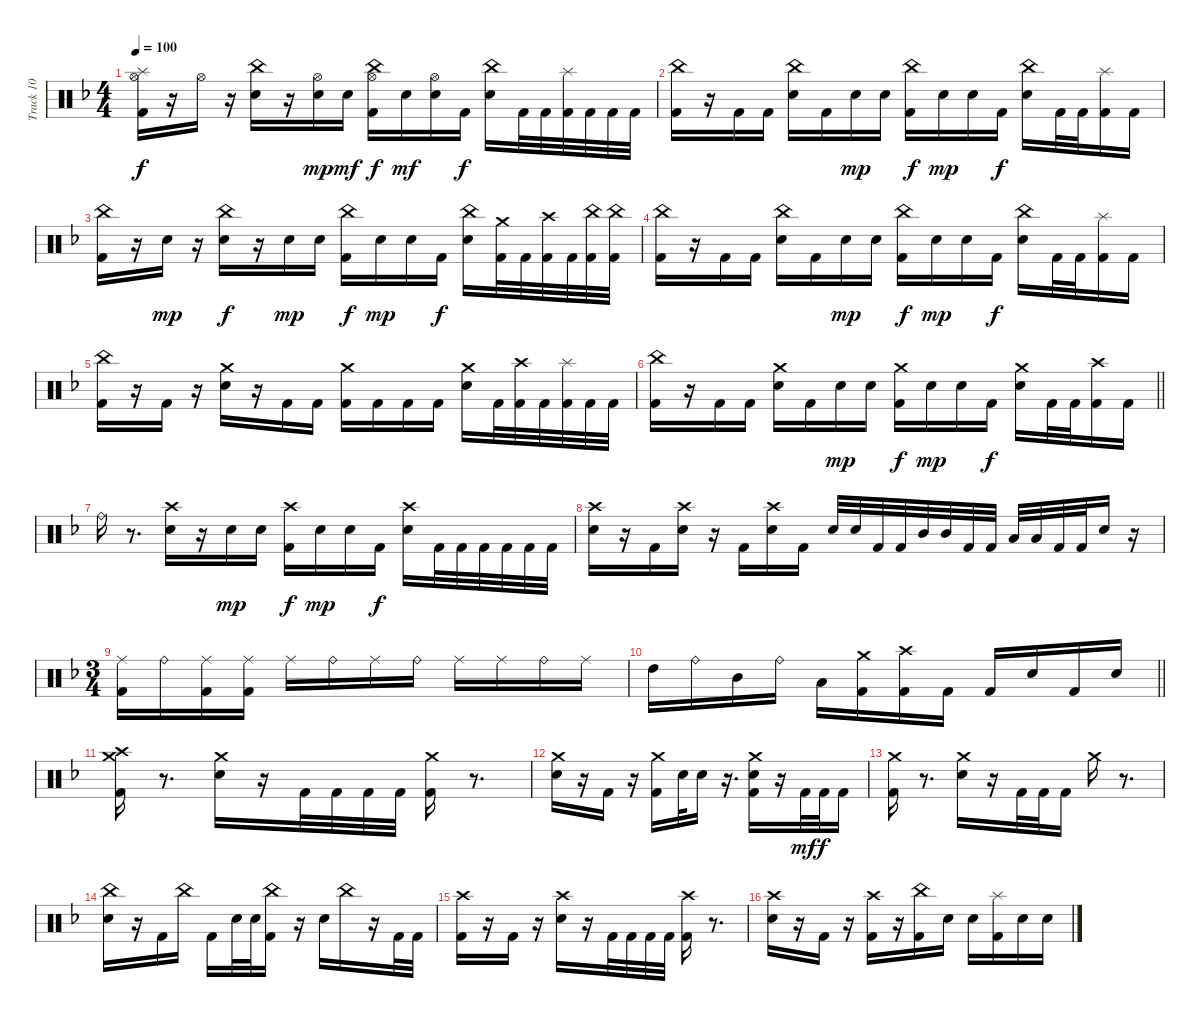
\track ("Track 10" "Track 10") {instrument percussion}
\staff {score}
\articulation defaults
\ts (4 4)
\tempo 100
\clef neutral
\ks f
("Kick (hit) 2" "Hi-Hat (open)" "Splash (hit)").16{dy f} r.16 "Hi-Hat (open)".16 r.16 ("Snare (hit) 2" "China (hit)").16 r.16 ("Snare (hit) 2" "Hi-Hat (open)").16{dy mp} "Snare (hit) 2".16{dy mf} ("Kick (hit) 2" "Hi-Hat (open)" "China (hit)").16{dy f} "Snare (hit) 2".16{dy mf} ("Snare (hit) 2" "Hi-Hat (open)").16 "Kick (hit) 2".16{dy f} ("Snare (hit) 2" "China (hit)").16 "Kick (hit) 2".32 "Kick (hit) 2".32 ("Kick (hit) 2" "Splash (hit)").32 "Kick (hit) 2".32 "Kick (hit) 2".32 "Kick (hit) 2".32 |
("Kick (hit) 2" "China (hit)").16 r.16 "Kick (hit) 2".16 "Kick (hit) 2".16 ("Snare (hit) 2" "China (hit)").16 "Kick (hit) 2".16 "Snare (hit) 2".16{dy mp} "Snare (hit) 2".16 ("Kick (hit) 2" "China (hit)").16{dy f} "Snare (hit) 2".16{dy mp} "Snare (hit) 2".16 "Kick (hit) 2".16{dy f} ("Snare (hit) 2" "China (hit)").16 "Kick (hit) 2".32 "Kick (hit) 2".32 ("Kick (hit) 2" "Splash (hit)").16 "Kick (hit) 2".16 |
("Kick (hit) 2" "China (hit)").16 r.16 "Snare (hit) 2".16{dy mp} r.16 ("Snare (hit) 2" "China (hit)").16{dy f} r.16 "Snare (hit) 2".16{dy mp} "Snare (hit) 2".16 ("Kick (hit) 2" "China (hit)").16{dy f} "Snare (hit) 2".16{dy mp} "Snare (hit) 2".16 "Kick (hit) 2".16{dy f} ("Snare (hit) 2" "China (hit)").16 ("Kick (hit) 2" "Crash medium (hit)").32 "Kick (hit) 2".32 ("Kick (hit) 2" "Crash high (hit)").32 "Kick (hit) 2".32 ("Kick (hit) 2" "China (hit)").32 ("Kick (hit) 2" "China (hit)").32 |
("Kick (hit) 2" "China (hit)").16 r.16 "Kick (hit) 2".16 "Kick (hit) 2".16 ("Snare (hit) 2" "China (hit)").16 "Kick (hit) 2".16 "Snare (hit) 2".16{dy mp} "Snare (hit) 2".16 ("Kick (hit) 2" "China (hit)").16{dy f} "Snare (hit) 2".16{dy mp} "Snare (hit) 2".16 "Kick (hit) 2".16{dy f} ("Snare (hit) 2" "China (hit)").16 "Kick (hit) 2".32 "Kick (hit) 2".32 ("Kick (hit) 2" "Splash (hit)").16 "Kick (hit) 2".16 |
("Kick (hit) 2" "China (hit)").16 r.16 "Kick (hit) 2".16 r.16 ("Snare (hit) 2" "Crash medium (hit)").16 r.16 "Kick (hit) 2".16 "Kick (hit) 2".16 ("Kick (hit) 2" "Crash medium (hit)").16 "Kick (hit) 2".16 "Kick (hit) 2".16 "Kick (hit) 2".16 ("Snare (hit) 2" "Crash medium (hit)").16 "Kick (hit) 2".32 ("Kick (hit) 2" "Crash high (hit)").32 "Kick (hit) 2".32 ("Kick (hit) 2" "Splash (hit)").32 "Kick (hit) 2".32 "Kick (hit) 2".32 |
\barLineRight lightlight
("Kick (hit) 2" "China (hit)").16 r.16 "Kick (hit) 2".16 "Kick (hit) 2".16 ("Snare (hit) 2" "Crash medium (hit)").16 "Kick (hit) 2".16 "Snare (hit) 2".16{dy mp} "Snare (hit) 2".16 ("Kick (hit) 2" "Crash medium (hit)").16{dy f} "Snare (hit) 2".16{dy mp} "Snare (hit) 2".16 "Kick (hit) 2".16{dy f} ("Snare (hit) 2" "Crash medium (hit)").16 "Kick (hit) 2".32 "Kick (hit) 2".32 ("Kick (hit) 2" "Crash high (hit)").16 "Kick (hit) 2".16 |
"Ride (bell)".16 r.8{d} ("Snare (hit) 2" "Crash high (hit)").16 r.16 "Snare (hit) 2".16{dy mp} "Snare (hit) 2".16 ("Kick (hit) 2" "Crash high (hit)").16{dy f} "Snare (hit) 2".16{dy mp} "Snare (hit) 2".16 "Kick (hit) 2".16{dy f} ("Snare (hit) 2" "Crash high (hit)").16 "Kick (hit) 2".32 "Kick (hit) 2".32 "Kick (hit) 2".32 "Kick (hit) 2".32 "Kick (hit) 2".32 "Kick (hit) 2".32 |
("Snare (hit) 2" "Crash high (hit)").16 r.16 "Kick (hit) 2".16 ("Snare (hit) 2" "Crash high (hit)").16 r.16 "Kick (hit) 2".16 ("Snare (hit) 2" "Crash high (hit)").16 "Kick (hit) 2".16 "Snare (hit) 2".32 "Snare (hit) 2".32 "Kick (hit) 2".32 "Kick (hit) 2".32 "Mid Tom (hit)".32 "Mid Tom (hit)".32 "Kick (hit) 2".32 "Kick (hit) 2".32 "Low Floor Tom (hit)".32 "Low Floor Tom (hit)".32 "Kick (hit) 2".32 "Kick (hit) 2".32 "Snare (hit) 2".16 r.16 |
\ts (3 4)
("Kick (hit) 2" "Ride (middle)").16 "Ride (bell)".16 ("Kick (hit) 2" "Ride (middle)").16 ("Kick (hit) 2" "Ride (middle)").16 "Ride (middle)".16 "Ride (bell)".16 "Ride (middle)".16 "Ride (bell)".16 "Ride (middle)".16 "Ride (middle)".16 "Ride (bell)".16 "Ride (middle)".16 |
\barLineRight lightlight "High Tom (hit)".16 "Ride (bell)".16 "Mid Tom (hit)".16 "Ride (bell)".16 "Low Floor Tom (hit)".16
("Kick (hit) 2" "Crash medium (hit)").16 ("Kick (hit) 2" "Crash high (hit)").16 "Kick (hit) 2".16 "Kick (hit) 2".16 "Snare (hit) 2".16 "Kick (hit) 2".16 "Snare (hit) 2".16 |
("Kick (hit) 2" "Crash high (hit)" "Crash medium (hit)").16 r.8{d} ("Snare (hit) 2" "Crash medium (hit)").16 r.16 "Kick (hit) 2".32 "Kick (hit) 2".32 "Kick (hit) 2".32 "Kick (hit) 2".32 ("Kick (hit) 2" "Crash medium (hit)").16 r.8{d} |
("Snare (hit) 2" "Crash medium (hit)").16 r.16 "Kick (hit) 2".16 r.16 ("Kick (hit) 2" "Crash medium (hit)").16 "Snare (hit) 2".32 "Snare (hit) 2".16 r.16{d} ("Kick (hit) 2" "Snare (hit) 2" "Crash medium (hit)").16 r.16 "Kick (hit) 2".32{dy mf} "Kick (hit) 2".32{dy f} "Kick (hit) 2".16 |
("Kick (hit) 2" "Crash medium (hit)").16 r.8{d} ("Snare (hit) 2" "Crash medium (hit)").16 r.16 "Kick (hit) 2".32 "Kick (hit) 2".32 "Kick (hit) 2".16 "Crash medium (hit)".16 r.8{d} |
("Snare (hit) 2" "China (hit)").16 r.16 "Kick (hit) 2".16 "China (hit)".16 "Kick (hit) 2".16 "Snare (hit) 2".32 "Snare (hit) 2".32 ("Kick (hit) 2" "China (hit)").16 r.16 "Snare (hit) 2".16 "China (hit)".16 r.16 "Kick (hit) 2".32 "Kick (hit) 2".32 |
("Kick (hit) 2" "Crash high (hit)").16 r.16 "Kick (hit) 2".16 r.16 ("Snare (hit) 2" "Crash high (hit)").16 r.16 "Kick (hit) 2".32 "Kick (hit) 2".32 "Kick (hit) 2".32 "Kick (hit) 2".32 ("Kick (hit) 2" "Crash high (hit)").16 r.8{d} |
("Snare (hit) 2" "Crash high (hit)").16 r.16 "Kick (hit) 2".16 r.16 ("Kick (hit) 2" "Crash high (hit)").16 r.16 ("Kick (hit) 2" "China (hit)").16 "Snare (hit) 2".16 "Snare (hit) 2".16 ("Kick (hit) 2" "Splash (hit)").16 "Snare (hit) 2".16 "Snare (hit) 2".16
